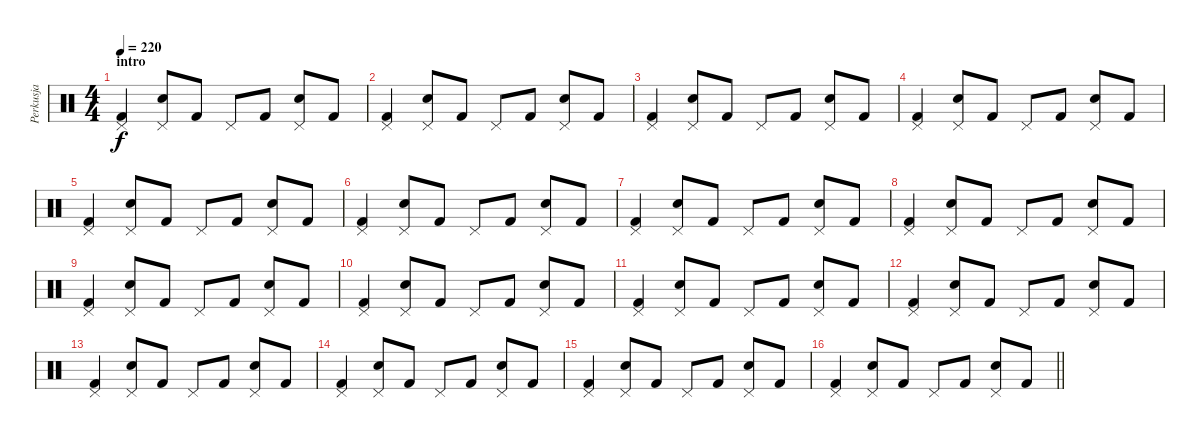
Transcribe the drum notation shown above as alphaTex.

\track ("Perkusja" "Perkusja") {instrument percussion}
\staff {score}
\articulation defaults
\ts (4 4)
\section ("" "intro")
\tempo 220
\clef neutral
\ks c
("Pedal Hi-Hat (hit)" "Kick (hit) 2").4{dy f} ("Pedal Hi-Hat (hit)" "Snare (hit) 2").8 "Kick (hit) 2".8 "Pedal Hi-Hat (hit)".8 "Kick (hit) 2".8 ("Pedal Hi-Hat (hit)" "Snare (hit) 2").8 "Kick (hit) 2".8 |
("Pedal Hi-Hat (hit)" "Kick (hit) 2").4 ("Pedal Hi-Hat (hit)" "Snare (hit) 2").8 "Kick (hit) 2".8 "Pedal Hi-Hat (hit)".8 "Kick (hit) 2".8 ("Pedal Hi-Hat (hit)" "Snare (hit) 2").8 "Kick (hit) 2".8 |
("Pedal Hi-Hat (hit)" "Kick (hit) 2").4 ("Pedal Hi-Hat (hit)" "Snare (hit) 2").8 "Kick (hit) 2".8 "Pedal Hi-Hat (hit)".8 "Kick (hit) 2".8 ("Pedal Hi-Hat (hit)" "Snare (hit) 2").8 "Kick (hit) 2".8 |
("Pedal Hi-Hat (hit)" "Kick (hit) 2").4 ("Pedal Hi-Hat (hit)" "Snare (hit) 2").8 "Kick (hit) 2".8 "Pedal Hi-Hat (hit)".8 "Kick (hit) 2".8 ("Pedal Hi-Hat (hit)" "Snare (hit) 2").8 "Kick (hit) 2".8 |
("Pedal Hi-Hat (hit)" "Kick (hit) 2").4 ("Pedal Hi-Hat (hit)" "Snare (hit) 2").8 "Kick (hit) 2".8 "Pedal Hi-Hat (hit)".8 "Kick (hit) 2".8 ("Pedal Hi-Hat (hit)" "Snare (hit) 2").8 "Kick (hit) 2".8 |
("Pedal Hi-Hat (hit)" "Kick (hit) 2").4 ("Pedal Hi-Hat (hit)" "Snare (hit) 2").8 "Kick (hit) 2".8 "Pedal Hi-Hat (hit)".8 "Kick (hit) 2".8 ("Pedal Hi-Hat (hit)" "Snare (hit) 2").8 "Kick (hit) 2".8 |
("Pedal Hi-Hat (hit)" "Kick (hit) 2").4 ("Pedal Hi-Hat (hit)" "Snare (hit) 2").8 "Kick (hit) 2".8 "Pedal Hi-Hat (hit)".8 "Kick (hit) 2".8 ("Pedal Hi-Hat (hit)" "Snare (hit) 2").8 "Kick (hit) 2".8 |
("Pedal Hi-Hat (hit)" "Kick (hit) 2").4 ("Pedal Hi-Hat (hit)" "Snare (hit) 2").8 "Kick (hit) 2".8 "Pedal Hi-Hat (hit)".8 "Kick (hit) 2".8 ("Pedal Hi-Hat (hit)" "Snare (hit) 2").8 "Kick (hit) 2".8 |
("Pedal Hi-Hat (hit)" "Kick (hit) 2").4 ("Pedal Hi-Hat (hit)" "Snare (hit) 2").8 "Kick (hit) 2".8 "Pedal Hi-Hat (hit)".8 "Kick (hit) 2".8 ("Pedal Hi-Hat (hit)" "Snare (hit) 2").8 "Kick (hit) 2".8 |
("Pedal Hi-Hat (hit)" "Kick (hit) 2").4 ("Pedal Hi-Hat (hit)" "Snare (hit) 2").8 "Kick (hit) 2".8 "Pedal Hi-Hat (hit)".8 "Kick (hit) 2".8 ("Pedal Hi-Hat (hit)" "Snare (hit) 2").8 "Kick (hit) 2".8 |
("Pedal Hi-Hat (hit)" "Kick (hit) 2").4 ("Pedal Hi-Hat (hit)" "Snare (hit) 2").8 "Kick (hit) 2".8 "Pedal Hi-Hat (hit)".8 "Kick (hit) 2".8 ("Pedal Hi-Hat (hit)" "Snare (hit) 2").8 "Kick (hit) 2".8 |
("Pedal Hi-Hat (hit)" "Kick (hit) 2").4 ("Pedal Hi-Hat (hit)" "Snare (hit) 2").8 "Kick (hit) 2".8 "Pedal Hi-Hat (hit)".8 "Kick (hit) 2".8 ("Pedal Hi-Hat (hit)" "Snare (hit) 2").8 "Kick (hit) 2".8 |
("Pedal Hi-Hat (hit)" "Kick (hit) 2").4 ("Pedal Hi-Hat (hit)" "Snare (hit) 2").8 "Kick (hit) 2".8 "Pedal Hi-Hat (hit)".8 "Kick (hit) 2".8 ("Pedal Hi-Hat (hit)" "Snare (hit) 2").8 "Kick (hit) 2".8 |
("Pedal Hi-Hat (hit)" "Kick (hit) 2").4 ("Pedal Hi-Hat (hit)" "Snare (hit) 2").8 "Kick (hit) 2".8 "Pedal Hi-Hat (hit)".8 "Kick (hit) 2".8 ("Pedal Hi-Hat (hit)" "Snare (hit) 2").8 "Kick (hit) 2".8 |
("Pedal Hi-Hat (hit)" "Kick (hit) 2").4 ("Pedal Hi-Hat (hit)" "Snare (hit) 2").8 "Kick (hit) 2".8 "Pedal Hi-Hat (hit)".8 "Kick (hit) 2".8 ("Pedal Hi-Hat (hit)" "Snare (hit) 2").8 "Kick (hit) 2".8 |
\barLineRight lightlight
("Pedal Hi-Hat (hit)" "Kick (hit) 2").4 ("Pedal Hi-Hat (hit)" "Snare (hit) 2").8 "Kick (hit) 2".8 "Pedal Hi-Hat (hit)".8 "Kick (hit) 2".8 ("Pedal Hi-Hat (hit)" "Snare (hit) 2").8 "Kick (hit) 2".8
